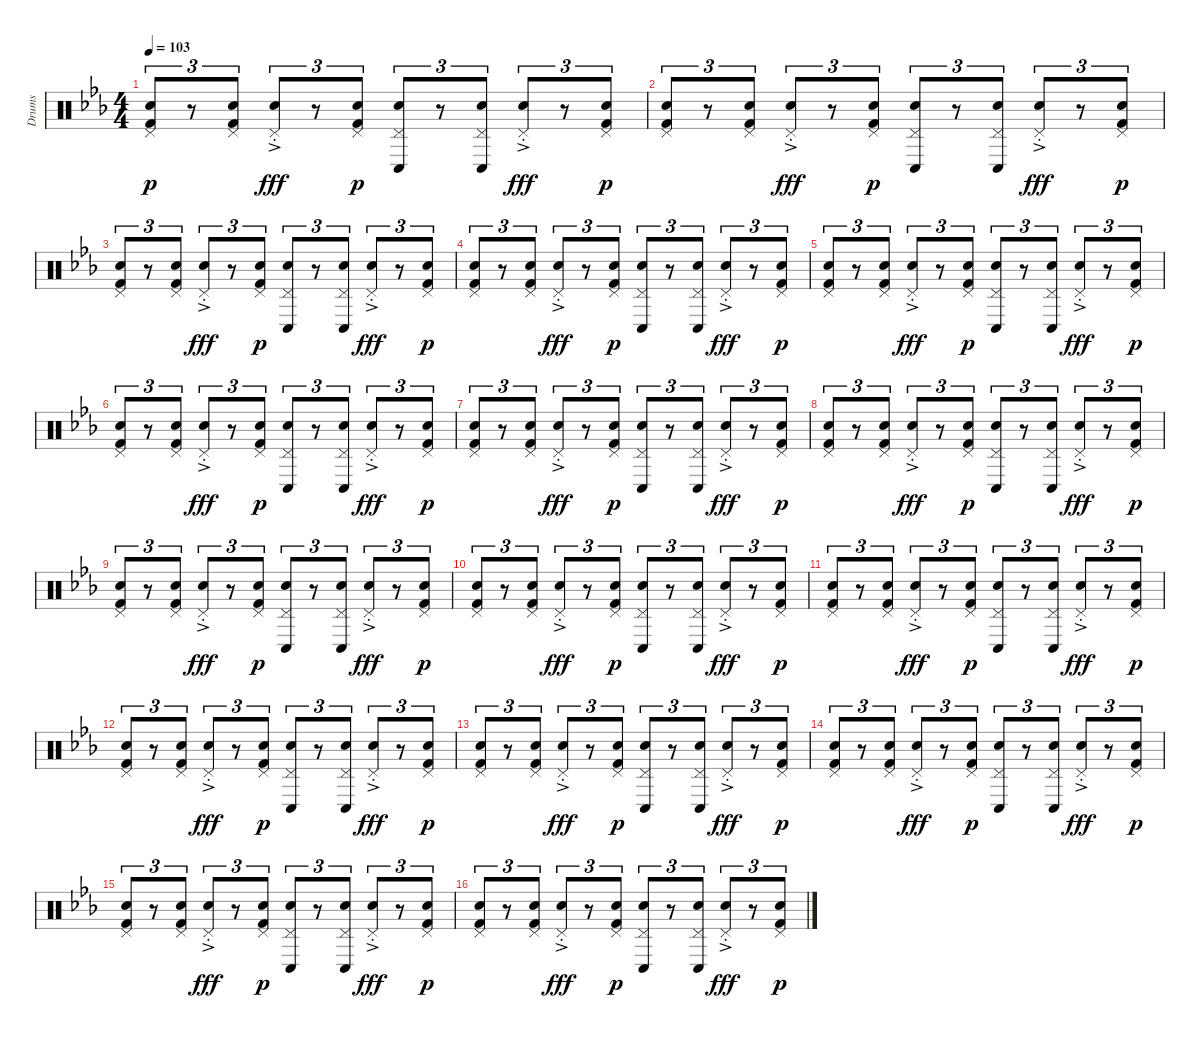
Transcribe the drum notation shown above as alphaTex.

\track ("Drums" "Drums") {instrument percussion}
\staff {score}
\articulation defaults
\ts (4 4)
\tempo 103
\clef neutral
\ks eb
("Pedal Hi-Hat (hit)" "Snare (hit) 2" "Kick (hit) 2").8{tu (3 2) dy p} r.8{tu (3 2)} ("Pedal Hi-Hat (hit)" "Snare (hit) 2" "Kick (hit) 2").8{tu (3 2)} ("Pedal Hi-Hat (hit)"{ac st} "Snare (hit) 2"{ac}).8{tu (3 2) dy fff} r.8{tu (3 2)} ("Pedal Hi-Hat (hit)" "Snare (hit) 2" "Kick (hit) 2").8{tu (3 2) dy p} ("Pedal Hi-Hat (hit)" "Snare (hit) 2" "Conga low (hit)").8{tu (3 2)} r.8{tu (3 2)} ("Pedal Hi-Hat (hit)" "Snare (hit) 2" "Conga low (hit)").8{tu (3 2)} ("Pedal Hi-Hat (hit)"{ac st} "Snare (hit) 2"{ac}).8{tu (3 2) dy fff} r.8{tu (3 2)} ("Pedal Hi-Hat (hit)" "Snare (hit) 2" "Kick (hit) 2").8{tu (3 2) dy p} |
("Pedal Hi-Hat (hit)" "Snare (hit) 2" "Kick (hit) 2").8{tu (3 2)} r.8{tu (3 2)} ("Pedal Hi-Hat (hit)" "Snare (hit) 2" "Kick (hit) 2").8{tu (3 2)} ("Pedal Hi-Hat (hit)"{ac st} "Snare (hit) 2"{ac}).8{tu (3 2) dy fff} r.8{tu (3 2)} ("Pedal Hi-Hat (hit)" "Snare (hit) 2" "Kick (hit) 2").8{tu (3 2) dy p} ("Pedal Hi-Hat (hit)" "Snare (hit) 2" "Conga low (hit)").8{tu (3 2)} r.8{tu (3 2)} ("Pedal Hi-Hat (hit)" "Snare (hit) 2" "Conga low (hit)").8{tu (3 2)} ("Pedal Hi-Hat (hit)"{ac st} "Snare (hit) 2"{ac}).8{tu (3 2) dy fff} r.8{tu (3 2)} ("Pedal Hi-Hat (hit)" "Snare (hit) 2" "Kick (hit) 2").8{tu (3 2) dy p} |
("Pedal Hi-Hat (hit)" "Snare (hit) 2" "Kick (hit) 2").8{tu (3 2)} r.8{tu (3 2)} ("Pedal Hi-Hat (hit)" "Snare (hit) 2" "Kick (hit) 2").8{tu (3 2)} ("Pedal Hi-Hat (hit)"{ac st} "Snare (hit) 2"{ac}).8{tu (3 2) dy fff} r.8{tu (3 2)} ("Pedal Hi-Hat (hit)" "Snare (hit) 2" "Kick (hit) 2").8{tu (3 2) dy p} ("Pedal Hi-Hat (hit)" "Snare (hit) 2" "Conga low (hit)").8{tu (3 2)} r.8{tu (3 2)} ("Pedal Hi-Hat (hit)" "Snare (hit) 2" "Conga low (hit)").8{tu (3 2)} ("Pedal Hi-Hat (hit)"{ac st} "Snare (hit) 2"{ac}).8{tu (3 2) dy fff} r.8{tu (3 2)} ("Pedal Hi-Hat (hit)" "Snare (hit) 2" "Kick (hit) 2").8{tu (3 2) dy p} |
("Pedal Hi-Hat (hit)" "Snare (hit) 2" "Kick (hit) 2").8{tu (3 2)} r.8{tu (3 2)} ("Pedal Hi-Hat (hit)" "Snare (hit) 2" "Kick (hit) 2").8{tu (3 2)} ("Pedal Hi-Hat (hit)"{ac st} "Snare (hit) 2"{ac}).8{tu (3 2) dy fff} r.8{tu (3 2)} ("Pedal Hi-Hat (hit)" "Snare (hit) 2" "Kick (hit) 2").8{tu (3 2) dy p} ("Pedal Hi-Hat (hit)" "Snare (hit) 2" "Conga low (hit)").8{tu (3 2)} r.8{tu (3 2)} ("Pedal Hi-Hat (hit)" "Snare (hit) 2" "Conga low (hit)").8{tu (3 2)} ("Pedal Hi-Hat (hit)"{ac st} "Snare (hit) 2"{ac}).8{tu (3 2) dy fff} r.8{tu (3 2)} ("Pedal Hi-Hat (hit)" "Snare (hit) 2" "Kick (hit) 2").8{tu (3 2) dy p} |
("Pedal Hi-Hat (hit)" "Snare (hit) 2" "Kick (hit) 2").8{tu (3 2)} r.8{tu (3 2)} ("Pedal Hi-Hat (hit)" "Snare (hit) 2" "Kick (hit) 2").8{tu (3 2)} ("Pedal Hi-Hat (hit)"{ac st} "Snare (hit) 2"{ac}).8{tu (3 2) dy fff} r.8{tu (3 2)} ("Pedal Hi-Hat (hit)" "Snare (hit) 2" "Kick (hit) 2").8{tu (3 2) dy p} ("Pedal Hi-Hat (hit)" "Snare (hit) 2" "Conga low (hit)").8{tu (3 2)} r.8{tu (3 2)} ("Pedal Hi-Hat (hit)" "Snare (hit) 2" "Conga low (hit)").8{tu (3 2)} ("Pedal Hi-Hat (hit)"{ac st} "Snare (hit) 2"{ac}).8{tu (3 2) dy fff} r.8{tu (3 2)} ("Pedal Hi-Hat (hit)" "Snare (hit) 2" "Kick (hit) 2").8{tu (3 2) dy p} |
("Pedal Hi-Hat (hit)" "Snare (hit) 2" "Kick (hit) 2").8{tu (3 2)} r.8{tu (3 2)} ("Pedal Hi-Hat (hit)" "Snare (hit) 2" "Kick (hit) 2").8{tu (3 2)} ("Pedal Hi-Hat (hit)"{ac st} "Snare (hit) 2"{ac}).8{tu (3 2) dy fff} r.8{tu (3 2)} ("Pedal Hi-Hat (hit)" "Snare (hit) 2" "Kick (hit) 2").8{tu (3 2) dy p} ("Pedal Hi-Hat (hit)" "Snare (hit) 2" "Conga low (hit)").8{tu (3 2)} r.8{tu (3 2)} ("Pedal Hi-Hat (hit)" "Snare (hit) 2" "Conga low (hit)").8{tu (3 2)} ("Pedal Hi-Hat (hit)"{ac st} "Snare (hit) 2"{ac}).8{tu (3 2) dy fff} r.8{tu (3 2)} ("Pedal Hi-Hat (hit)" "Snare (hit) 2" "Kick (hit) 2").8{tu (3 2) dy p} |
("Pedal Hi-Hat (hit)" "Snare (hit) 2" "Kick (hit) 2").8{tu (3 2)} r.8{tu (3 2)} ("Pedal Hi-Hat (hit)" "Snare (hit) 2" "Kick (hit) 2").8{tu (3 2)} ("Pedal Hi-Hat (hit)"{ac st} "Snare (hit) 2"{ac}).8{tu (3 2) dy fff} r.8{tu (3 2)} ("Pedal Hi-Hat (hit)" "Snare (hit) 2" "Kick (hit) 2").8{tu (3 2) dy p} ("Pedal Hi-Hat (hit)" "Snare (hit) 2" "Conga low (hit)").8{tu (3 2)} r.8{tu (3 2)} ("Pedal Hi-Hat (hit)" "Snare (hit) 2" "Conga low (hit)").8{tu (3 2)} ("Pedal Hi-Hat (hit)"{ac st} "Snare (hit) 2"{ac}).8{tu (3 2) dy fff} r.8{tu (3 2)} ("Pedal Hi-Hat (hit)" "Snare (hit) 2" "Kick (hit) 2").8{tu (3 2) dy p} |
("Pedal Hi-Hat (hit)" "Snare (hit) 2" "Kick (hit) 2").8{tu (3 2)} r.8{tu (3 2)} ("Pedal Hi-Hat (hit)" "Snare (hit) 2" "Kick (hit) 2").8{tu (3 2)} ("Pedal Hi-Hat (hit)"{ac st} "Snare (hit) 2"{ac}).8{tu (3 2) dy fff} r.8{tu (3 2)} ("Pedal Hi-Hat (hit)" "Snare (hit) 2" "Kick (hit) 2").8{tu (3 2) dy p} ("Pedal Hi-Hat (hit)" "Snare (hit) 2" "Conga low (hit)").8{tu (3 2)} r.8{tu (3 2)} ("Pedal Hi-Hat (hit)" "Snare (hit) 2" "Conga low (hit)").8{tu (3 2)} ("Pedal Hi-Hat (hit)"{ac st} "Snare (hit) 2"{ac}).8{tu (3 2) dy fff} r.8{tu (3 2)} ("Pedal Hi-Hat (hit)" "Snare (hit) 2" "Kick (hit) 2").8{tu (3 2) dy p} |
("Pedal Hi-Hat (hit)" "Snare (hit) 2" "Kick (hit) 2").8{tu (3 2)} r.8{tu (3 2)} ("Pedal Hi-Hat (hit)" "Snare (hit) 2" "Kick (hit) 2").8{tu (3 2)} ("Pedal Hi-Hat (hit)"{ac st} "Snare (hit) 2"{ac}).8{tu (3 2) dy fff} r.8{tu (3 2)} ("Pedal Hi-Hat (hit)" "Snare (hit) 2" "Kick (hit) 2").8{tu (3 2) dy p} ("Pedal Hi-Hat (hit)" "Snare (hit) 2" "Conga low (hit)").8{tu (3 2)} r.8{tu (3 2)} ("Pedal Hi-Hat (hit)" "Snare (hit) 2" "Conga low (hit)").8{tu (3 2)} ("Pedal Hi-Hat (hit)"{ac st} "Snare (hit) 2"{ac}).8{tu (3 2) dy fff} r.8{tu (3 2)} ("Pedal Hi-Hat (hit)" "Snare (hit) 2" "Kick (hit) 2").8{tu (3 2) dy p} |
("Pedal Hi-Hat (hit)" "Snare (hit) 2" "Kick (hit) 2").8{tu (3 2)} r.8{tu (3 2)} ("Pedal Hi-Hat (hit)" "Snare (hit) 2" "Kick (hit) 2").8{tu (3 2)} ("Pedal Hi-Hat (hit)"{ac st} "Snare (hit) 2"{ac}).8{tu (3 2) dy fff} r.8{tu (3 2)} ("Pedal Hi-Hat (hit)" "Snare (hit) 2" "Kick (hit) 2").8{tu (3 2) dy p} ("Pedal Hi-Hat (hit)" "Snare (hit) 2" "Conga low (hit)").8{tu (3 2)} r.8{tu (3 2)} ("Pedal Hi-Hat (hit)" "Snare (hit) 2" "Conga low (hit)").8{tu (3 2)} ("Pedal Hi-Hat (hit)"{ac st} "Snare (hit) 2"{ac}).8{tu (3 2) dy fff} r.8{tu (3 2)} ("Pedal Hi-Hat (hit)" "Snare (hit) 2" "Kick (hit) 2").8{tu (3 2) dy p} |
("Pedal Hi-Hat (hit)" "Snare (hit) 2" "Kick (hit) 2").8{tu (3 2)} r.8{tu (3 2)} ("Pedal Hi-Hat (hit)" "Snare (hit) 2" "Kick (hit) 2").8{tu (3 2)} ("Pedal Hi-Hat (hit)"{ac st} "Snare (hit) 2"{ac}).8{tu (3 2) dy fff} r.8{tu (3 2)} ("Pedal Hi-Hat (hit)" "Snare (hit) 2" "Kick (hit) 2").8{tu (3 2) dy p} ("Pedal Hi-Hat (hit)" "Snare (hit) 2" "Conga low (hit)").8{tu (3 2)} r.8{tu (3 2)} ("Pedal Hi-Hat (hit)" "Snare (hit) 2" "Conga low (hit)").8{tu (3 2)} ("Pedal Hi-Hat (hit)"{ac st} "Snare (hit) 2"{ac}).8{tu (3 2) dy fff} r.8{tu (3 2)} ("Pedal Hi-Hat (hit)" "Snare (hit) 2" "Kick (hit) 2").8{tu (3 2) dy p} |
("Pedal Hi-Hat (hit)" "Snare (hit) 2" "Kick (hit) 2").8{tu (3 2)} r.8{tu (3 2)} ("Pedal Hi-Hat (hit)" "Snare (hit) 2" "Kick (hit) 2").8{tu (3 2)} ("Pedal Hi-Hat (hit)"{ac st} "Snare (hit) 2"{ac}).8{tu (3 2) dy fff} r.8{tu (3 2)} ("Pedal Hi-Hat (hit)" "Snare (hit) 2" "Kick (hit) 2").8{tu (3 2) dy p} ("Pedal Hi-Hat (hit)" "Snare (hit) 2" "Conga low (hit)").8{tu (3 2)} r.8{tu (3 2)} ("Pedal Hi-Hat (hit)" "Snare (hit) 2" "Conga low (hit)").8{tu (3 2)} ("Pedal Hi-Hat (hit)"{ac st} "Snare (hit) 2"{ac}).8{tu (3 2) dy fff} r.8{tu (3 2)} ("Pedal Hi-Hat (hit)" "Snare (hit) 2" "Kick (hit) 2").8{tu (3 2) dy p} |
("Pedal Hi-Hat (hit)" "Snare (hit) 2" "Kick (hit) 2").8{tu (3 2)} r.8{tu (3 2)} ("Pedal Hi-Hat (hit)" "Snare (hit) 2" "Kick (hit) 2").8{tu (3 2)} ("Pedal Hi-Hat (hit)"{ac st} "Snare (hit) 2"{ac}).8{tu (3 2) dy fff} r.8{tu (3 2)} ("Pedal Hi-Hat (hit)" "Snare (hit) 2" "Kick (hit) 2").8{tu (3 2) dy p} ("Pedal Hi-Hat (hit)" "Snare (hit) 2" "Conga low (hit)").8{tu (3 2)} r.8{tu (3 2)} ("Pedal Hi-Hat (hit)" "Snare (hit) 2" "Conga low (hit)").8{tu (3 2)} ("Pedal Hi-Hat (hit)"{ac st} "Snare (hit) 2"{ac}).8{tu (3 2) dy fff} r.8{tu (3 2)} ("Pedal Hi-Hat (hit)" "Snare (hit) 2" "Kick (hit) 2").8{tu (3 2) dy p} |
("Pedal Hi-Hat (hit)" "Snare (hit) 2" "Kick (hit) 2").8{tu (3 2)} r.8{tu (3 2)} ("Pedal Hi-Hat (hit)" "Snare (hit) 2" "Kick (hit) 2").8{tu (3 2)} ("Pedal Hi-Hat (hit)"{ac st} "Snare (hit) 2"{ac}).8{tu (3 2) dy fff} r.8{tu (3 2)} ("Pedal Hi-Hat (hit)" "Snare (hit) 2" "Kick (hit) 2").8{tu (3 2) dy p} ("Pedal Hi-Hat (hit)" "Snare (hit) 2" "Conga low (hit)").8{tu (3 2)} r.8{tu (3 2)} ("Pedal Hi-Hat (hit)" "Snare (hit) 2" "Conga low (hit)").8{tu (3 2)} ("Pedal Hi-Hat (hit)"{ac st} "Snare (hit) 2"{ac}).8{tu (3 2) dy fff} r.8{tu (3 2)} ("Pedal Hi-Hat (hit)" "Snare (hit) 2" "Kick (hit) 2").8{tu (3 2) dy p} |
("Pedal Hi-Hat (hit)" "Snare (hit) 2" "Kick (hit) 2").8{tu (3 2)} r.8{tu (3 2)} ("Pedal Hi-Hat (hit)" "Snare (hit) 2" "Kick (hit) 2").8{tu (3 2)} ("Pedal Hi-Hat (hit)"{ac st} "Snare (hit) 2"{ac}).8{tu (3 2) dy fff} r.8{tu (3 2)} ("Pedal Hi-Hat (hit)" "Snare (hit) 2" "Kick (hit) 2").8{tu (3 2) dy p} ("Pedal Hi-Hat (hit)" "Snare (hit) 2" "Conga low (hit)").8{tu (3 2)} r.8{tu (3 2)} ("Pedal Hi-Hat (hit)" "Snare (hit) 2" "Conga low (hit)").8{tu (3 2)} ("Pedal Hi-Hat (hit)"{ac st} "Snare (hit) 2"{ac}).8{tu (3 2) dy fff} r.8{tu (3 2)} ("Pedal Hi-Hat (hit)" "Snare (hit) 2" "Kick (hit) 2").8{tu (3 2) dy p} |
("Pedal Hi-Hat (hit)" "Snare (hit) 2" "Kick (hit) 2").8{tu (3 2)} r.8{tu (3 2)} ("Pedal Hi-Hat (hit)" "Snare (hit) 2" "Kick (hit) 2").8{tu (3 2)} ("Pedal Hi-Hat (hit)"{ac st} "Snare (hit) 2"{ac}).8{tu (3 2) dy fff} r.8{tu (3 2)} ("Pedal Hi-Hat (hit)" "Snare (hit) 2" "Kick (hit) 2").8{tu (3 2) dy p} ("Pedal Hi-Hat (hit)" "Snare (hit) 2" "Conga low (hit)").8{tu (3 2)} r.8{tu (3 2)} ("Pedal Hi-Hat (hit)" "Snare (hit) 2" "Conga low (hit)").8{tu (3 2)} ("Pedal Hi-Hat (hit)"{ac st} "Snare (hit) 2"{ac}).8{tu (3 2) dy fff} r.8{tu (3 2)} ("Pedal Hi-Hat (hit)" "Snare (hit) 2" "Kick (hit) 2").8{tu (3 2) dy p}
